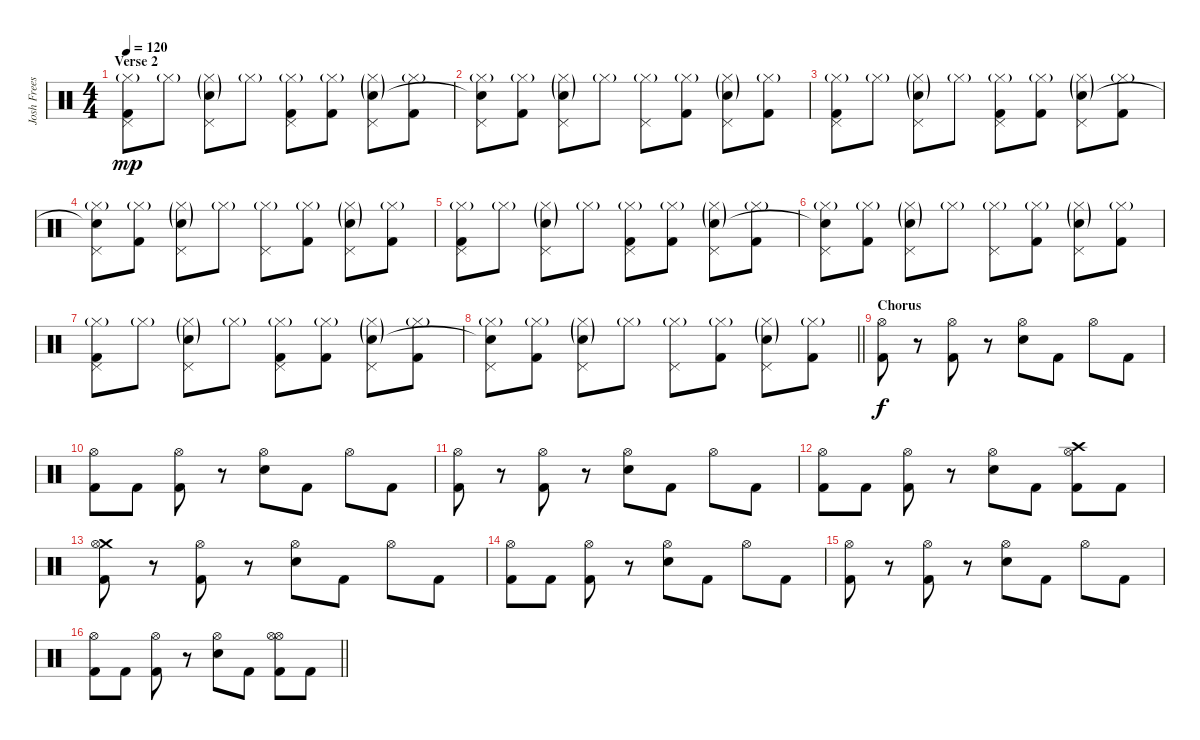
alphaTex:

\track ("Josh Freese (Drums)" "Josh Frees") {instrument percussion}
\staff {score}
\articulation defaults
\ts (4 4)
\section ("" "Verse 2")
\tempo 120
\clef neutral
\ks c
("Pedal Hi-Hat (hit)" "Hi-Hat (closed)"{g} "Kick (hit) 2").8{dy mp} "Hi-Hat (closed)"{g}.8 ("Pedal Hi-Hat (hit)" "Hi-Hat (closed)"{g} "Snare (hit) 2"{g}).8 "Hi-Hat (closed)"{g}.8 ("Pedal Hi-Hat (hit)" "Hi-Hat (closed)"{g} "Kick (hit) 2").8 ("Hi-Hat (closed)"{g} "Kick (hit) 2").8 ("Pedal Hi-Hat (hit)" "Hi-Hat (closed)"{g} "Snare (hit) 2"{g}).8 ("Hi-Hat (closed)"{g} "Kick (hit) 2").8 |
("Pedal Hi-Hat (hit)" "Hi-Hat (closed)"{g} "Snare (hit)"{t}).8 ("Hi-Hat (closed)"{g} "Kick (hit) 2").8 ("Pedal Hi-Hat (hit)" "Hi-Hat (closed)"{g} "Snare (hit) 2"{g}).8 "Hi-Hat (closed)"{g}.8 ("Pedal Hi-Hat (hit)" "Hi-Hat (closed)"{g}).8 ("Hi-Hat (closed)"{g} "Kick (hit) 2").8 ("Pedal Hi-Hat (hit)" "Hi-Hat (closed)"{g} "Snare (hit) 2"{g}).8 ("Hi-Hat (closed)"{g} "Kick (hit) 2").8 |
("Pedal Hi-Hat (hit)" "Hi-Hat (closed)"{g} "Kick (hit) 2").8 "Hi-Hat (closed)"{g}.8 ("Pedal Hi-Hat (hit)" "Hi-Hat (closed)"{g} "Snare (hit) 2"{g}).8 "Hi-Hat (closed)"{g}.8 ("Pedal Hi-Hat (hit)" "Hi-Hat (closed)"{g} "Kick (hit) 2").8 ("Hi-Hat (closed)"{g} "Kick (hit) 2").8 ("Pedal Hi-Hat (hit)" "Hi-Hat (closed)"{g} "Snare (hit) 2"{g}).8 ("Hi-Hat (closed)"{g} "Kick (hit) 2").8 |
("Pedal Hi-Hat (hit)" "Hi-Hat (closed)"{g} "Snare (hit)"{t}).8 ("Hi-Hat (closed)"{g} "Kick (hit) 2").8 ("Pedal Hi-Hat (hit)" "Hi-Hat (closed)"{g} "Snare (hit) 2"{g}).8 "Hi-Hat (closed)"{g}.8 ("Pedal Hi-Hat (hit)" "Hi-Hat (closed)"{g}).8 ("Hi-Hat (closed)"{g} "Kick (hit) 2").8 ("Pedal Hi-Hat (hit)" "Hi-Hat (closed)"{g} "Snare (hit) 2"{g}).8 ("Hi-Hat (closed)"{g} "Kick (hit) 2").8 |
("Pedal Hi-Hat (hit)" "Hi-Hat (closed)"{g} "Kick (hit) 2").8 "Hi-Hat (closed)"{g}.8 ("Pedal Hi-Hat (hit)" "Hi-Hat (closed)"{g} "Snare (hit) 2"{g}).8 "Hi-Hat (closed)"{g}.8 ("Pedal Hi-Hat (hit)" "Hi-Hat (closed)"{g} "Kick (hit) 2").8 ("Hi-Hat (closed)"{g} "Kick (hit) 2").8 ("Pedal Hi-Hat (hit)" "Hi-Hat (closed)"{g} "Snare (hit) 2"{g}).8 ("Hi-Hat (closed)"{g} "Kick (hit) 2").8 |
("Pedal Hi-Hat (hit)" "Hi-Hat (closed)"{g} "Snare (hit)"{t}).8 ("Hi-Hat (closed)"{g} "Kick (hit) 2").8 ("Pedal Hi-Hat (hit)" "Hi-Hat (closed)"{g} "Snare (hit) 2"{g}).8 "Hi-Hat (closed)"{g}.8 ("Pedal Hi-Hat (hit)" "Hi-Hat (closed)"{g}).8 ("Hi-Hat (closed)"{g} "Kick (hit) 2").8 ("Pedal Hi-Hat (hit)" "Hi-Hat (closed)"{g} "Snare (hit) 2"{g}).8 ("Hi-Hat (closed)"{g} "Kick (hit) 2").8 |
("Pedal Hi-Hat (hit)" "Hi-Hat (closed)"{g} "Kick (hit) 2").8 "Hi-Hat (closed)"{g}.8 ("Pedal Hi-Hat (hit)" "Hi-Hat (closed)"{g} "Snare (hit) 2"{g}).8 "Hi-Hat (closed)"{g}.8 ("Pedal Hi-Hat (hit)" "Hi-Hat (closed)"{g} "Kick (hit) 2").8 ("Hi-Hat (closed)"{g} "Kick (hit) 2").8 ("Pedal Hi-Hat (hit)" "Hi-Hat (closed)"{g} "Snare (hit) 2"{g}).8 ("Hi-Hat (closed)"{g} "Kick (hit) 2").8 |
\barLineRight lightlight
("Pedal Hi-Hat (hit)" "Hi-Hat (closed)"{g} "Snare (hit)"{t}).8 ("Hi-Hat (closed)"{g} "Kick (hit) 2").8 ("Pedal Hi-Hat (hit)" "Hi-Hat (closed)"{g} "Snare (hit) 2"{g}).8 "Hi-Hat (closed)"{g}.8 ("Pedal Hi-Hat (hit)" "Hi-Hat (closed)"{g}).8 ("Hi-Hat (closed)"{g} "Kick (hit) 2").8 ("Pedal Hi-Hat (hit)" "Hi-Hat (closed)"{g} "Snare (hit) 2"{g}).8 ("Hi-Hat (closed)"{g} "Kick (hit) 2").8 |
\section ("" "Chorus")
("Hi-Hat (open)" "Kick (hit) 2").8{dy f} r.8 ("Hi-Hat (open)" "Kick (hit) 2").8 r.8 ("Hi-Hat (open)" "Snare (hit) 2").8 "Kick (hit) 2".8 "Hi-Hat (open)".8 "Kick (hit) 2".8 |
("Hi-Hat (open)" "Kick (hit) 2").8 "Kick (hit) 2".8 ("Hi-Hat (open)" "Kick (hit) 2").8 r.8 ("Hi-Hat (open)" "Snare (hit) 2").8 "Kick (hit) 2".8 "Hi-Hat (open)".8 "Kick (hit) 2".8 |
("Hi-Hat (open)" "Kick (hit) 2").8 r.8 ("Hi-Hat (open)" "Kick (hit) 2").8 r.8 ("Hi-Hat (open)" "Snare (hit) 2").8 "Kick (hit) 2".8 "Hi-Hat (open)".8 "Kick (hit) 2".8 |
("Hi-Hat (open)" "Kick (hit) 2").8 "Kick (hit) 2".8 ("Hi-Hat (open)" "Kick (hit) 2").8 r.8 ("Hi-Hat (open)" "Snare (hit) 2").8 "Kick (hit) 2".8 ("Crash high (hit)" "Hi-Hat (open)" "Kick (hit) 2").8 "Kick (hit) 2".8 |
("Crash medium (hit)" "Hi-Hat (open)" "Kick (hit) 2").8 r.8 ("Hi-Hat (open)" "Kick (hit) 2").8 r.8 ("Hi-Hat (open)" "Snare (hit) 2").8 "Kick (hit) 2".8 "Hi-Hat (open)".8 "Kick (hit) 2".8 |
("Hi-Hat (open)" "Kick (hit) 2").8 "Kick (hit) 2".8 ("Hi-Hat (open)" "Kick (hit) 2").8 r.8 ("Hi-Hat (open)" "Snare (hit) 2").8 "Kick (hit) 2".8 "Hi-Hat (open)".8 "Kick (hit) 2".8 |
("Hi-Hat (open)" "Kick (hit) 2").8 r.8 ("Hi-Hat (open)" "Kick (hit) 2").8 r.8 ("Hi-Hat (open)" "Snare (hit) 2").8 "Kick (hit) 2".8 "Hi-Hat (open)".8 "Kick (hit) 2".8 |
\barLineRight lightlight
("Hi-Hat (open)" "Kick (hit) 2").8 "Kick (hit) 2".8 ("Hi-Hat (open)" "Kick (hit) 2").8 r.8 ("Hi-Hat (open)" "Snare (hit) 2").8 "Kick (hit) 2".8 ("Hi-Hat (open)" "Hi-Hat (open)" "Kick (hit) 2").8 "Kick (hit) 2".8
